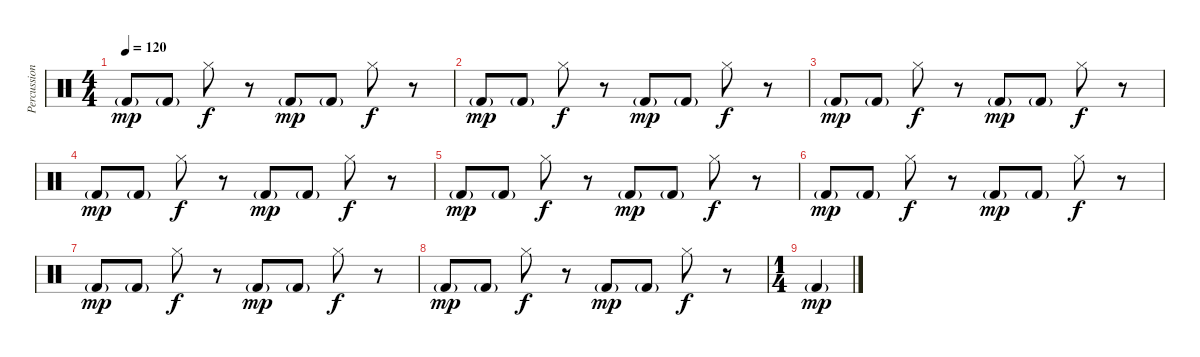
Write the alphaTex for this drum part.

\track ("Percussion" "Percussion") {instrument percussion}
\staff {score}
\articulation defaults
\ts (4 4)
\tempo 120
\clef neutral
\ks c "Kick (hit) 2"{g}.8{dy mp} "Kick (hit) 2"{g}.8 "Hi-Hat (closed)".8{dy f}
r.8 "Kick (hit) 2"{g}.8{dy mp} "Kick (hit) 2"{g}.8 "Hi-Hat (closed)".8{dy f} r.8 |
"Kick (hit) 2"{g}.8{dy mp} "Kick (hit) 2"{g}.8 "Hi-Hat (closed)".8{dy f} r.8 "Kick (hit) 2"{g}.8{dy mp} "Kick (hit) 2"{g}.8 "Hi-Hat (closed)".8{dy f} r.8 |
"Kick (hit) 2"{g}.8{dy mp} "Kick (hit) 2"{g}.8 "Hi-Hat (closed)".8{dy f} r.8 "Kick (hit) 2"{g}.8{dy mp} "Kick (hit) 2"{g}.8 "Hi-Hat (closed)".8{dy f} r.8 |
"Kick (hit) 2"{g}.8{dy mp} "Kick (hit) 2"{g}.8 "Hi-Hat (closed)".8{dy f} r.8 "Kick (hit) 2"{g}.8{dy mp} "Kick (hit) 2"{g}.8 "Hi-Hat (closed)".8{dy f} r.8 |
"Kick (hit) 2"{g}.8{dy mp} "Kick (hit) 2"{g}.8 "Hi-Hat (closed)".8{dy f} r.8 "Kick (hit) 2"{g}.8{dy mp} "Kick (hit) 2"{g}.8 "Hi-Hat (closed)".8{dy f} r.8 |
"Kick (hit) 2"{g}.8{dy mp} "Kick (hit) 2"{g}.8 "Hi-Hat (closed)".8{dy f} r.8 "Kick (hit) 2"{g}.8{dy mp} "Kick (hit) 2"{g}.8 "Hi-Hat (closed)".8{dy f} r.8 |
"Kick (hit) 2"{g}.8{dy mp} "Kick (hit) 2"{g}.8 "Hi-Hat (closed)".8{dy f} r.8 "Kick (hit) 2"{g}.8{dy mp} "Kick (hit) 2"{g}.8 "Hi-Hat (closed)".8{dy f} r.8 |
"Kick (hit) 2"{g}.8{dy mp} "Kick (hit) 2"{g}.8 "Hi-Hat (closed)".8{dy f} r.8 "Kick (hit) 2"{g}.8{dy mp} "Kick (hit) 2"{g}.8 "Hi-Hat (closed)".8{dy f} r.8 |
\ts (1 4)
"Kick (hit) 2"{g}.4{dy mp}
